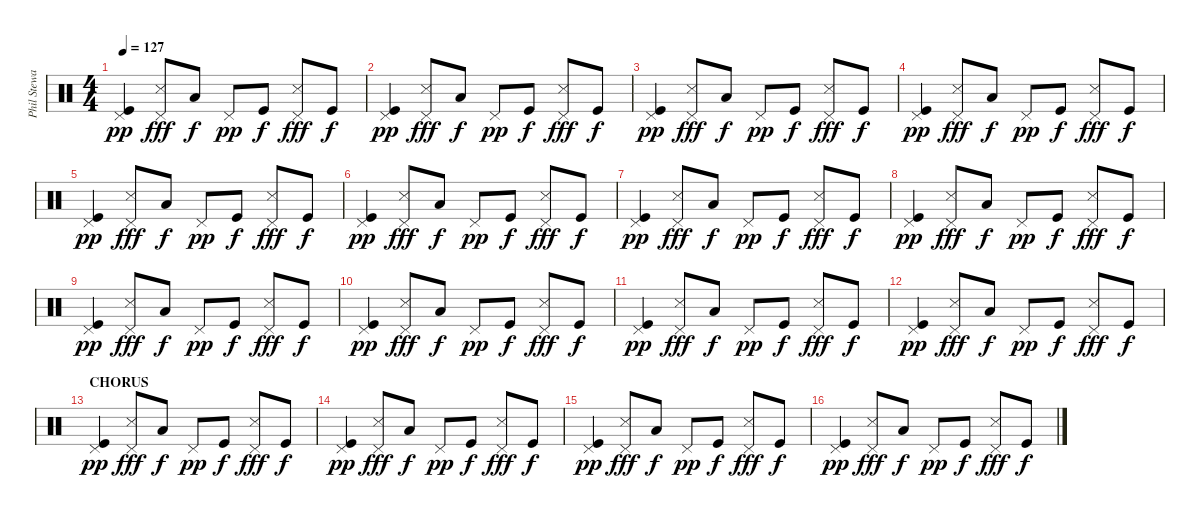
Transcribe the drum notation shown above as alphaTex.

\track ("Phil Steway" "Phil Stewa") {instrument percussion}
\staff {score}
\articulation defaults
\ts (4 4)
\tempo 127
\clef neutral
\ks c
("Pedal Hi-Hat (hit)" "Kick (hit)").4{dy pp} ("Pedal Hi-Hat (hit)" "Snare (side stick) 3").8{dy fff} "Low Tom (hit)".8{dy f} "Pedal Hi-Hat (hit)".8{dy pp} "Kick (hit)".8{dy f} ("Pedal Hi-Hat (hit)" "Snare (side stick) 3").8{dy fff} "Kick (hit)".8{dy f} |
("Pedal Hi-Hat (hit)" "Kick (hit)").4{dy pp} ("Pedal Hi-Hat (hit)" "Snare (side stick) 3").8{dy fff} "Low Tom (hit)".8{dy f} "Pedal Hi-Hat (hit)".8{dy pp} "Kick (hit)".8{dy f} ("Pedal Hi-Hat (hit)" "Snare (side stick) 3").8{dy fff} "Kick (hit)".8{dy f} |
("Pedal Hi-Hat (hit)" "Kick (hit)").4{dy pp} ("Pedal Hi-Hat (hit)" "Snare (side stick) 3").8{dy fff} "Low Tom (hit)".8{dy f} "Pedal Hi-Hat (hit)".8{dy pp} "Kick (hit)".8{dy f} ("Pedal Hi-Hat (hit)" "Snare (side stick) 3").8{dy fff} "Kick (hit)".8{dy f} |
("Pedal Hi-Hat (hit)" "Kick (hit)").4{dy pp} ("Pedal Hi-Hat (hit)" "Snare (side stick) 3").8{dy fff} "Low Tom (hit)".8{dy f} "Pedal Hi-Hat (hit)".8{dy pp} "Kick (hit)".8{dy f} ("Pedal Hi-Hat (hit)" "Snare (side stick) 3").8{dy fff} "Kick (hit)".8{dy f} |
("Pedal Hi-Hat (hit)" "Kick (hit)").4{dy pp} ("Pedal Hi-Hat (hit)" "Snare (side stick) 3").8{dy fff} "Low Tom (hit)".8{dy f} "Pedal Hi-Hat (hit)".8{dy pp} "Kick (hit)".8{dy f} ("Pedal Hi-Hat (hit)" "Snare (side stick) 3").8{dy fff} "Kick (hit)".8{dy f} |
("Pedal Hi-Hat (hit)" "Kick (hit)").4{dy pp} ("Pedal Hi-Hat (hit)" "Snare (side stick) 3").8{dy fff} "Low Tom (hit)".8{dy f} "Pedal Hi-Hat (hit)".8{dy pp} "Kick (hit)".8{dy f} ("Pedal Hi-Hat (hit)" "Snare (side stick) 3").8{dy fff} "Kick (hit)".8{dy f} |
("Pedal Hi-Hat (hit)" "Kick (hit)").4{dy pp} ("Pedal Hi-Hat (hit)" "Snare (side stick) 3").8{dy fff} "Low Tom (hit)".8{dy f} "Pedal Hi-Hat (hit)".8{dy pp} "Kick (hit)".8{dy f} ("Pedal Hi-Hat (hit)" "Snare (side stick) 3").8{dy fff} "Kick (hit)".8{dy f} |
("Pedal Hi-Hat (hit)" "Kick (hit)").4{dy pp} ("Pedal Hi-Hat (hit)" "Snare (side stick) 3").8{dy fff} "Low Tom (hit)".8{dy f} "Pedal Hi-Hat (hit)".8{dy pp} "Kick (hit)".8{dy f} ("Pedal Hi-Hat (hit)" "Snare (side stick) 3").8{dy fff} "Kick (hit)".8{dy f} |
("Pedal Hi-Hat (hit)" "Kick (hit)").4{dy pp} ("Pedal Hi-Hat (hit)" "Snare (side stick) 3").8{dy fff} "Low Tom (hit)".8{dy f} "Pedal Hi-Hat (hit)".8{dy pp} "Kick (hit)".8{dy f} ("Pedal Hi-Hat (hit)" "Snare (side stick) 3").8{dy fff} "Kick (hit)".8{dy f} |
("Pedal Hi-Hat (hit)" "Kick (hit)").4{dy pp} ("Pedal Hi-Hat (hit)" "Snare (side stick) 3").8{dy fff} "Low Tom (hit)".8{dy f} "Pedal Hi-Hat (hit)".8{dy pp} "Kick (hit)".8{dy f} ("Pedal Hi-Hat (hit)" "Snare (side stick) 3").8{dy fff} "Kick (hit)".8{dy f} |
("Pedal Hi-Hat (hit)" "Kick (hit)").4{dy pp} ("Pedal Hi-Hat (hit)" "Snare (side stick) 3").8{dy fff} "Low Tom (hit)".8{dy f} "Pedal Hi-Hat (hit)".8{dy pp} "Kick (hit)".8{dy f} ("Pedal Hi-Hat (hit)" "Snare (side stick) 3").8{dy fff} "Kick (hit)".8{dy f} |
("Pedal Hi-Hat (hit)" "Kick (hit)").4{dy pp} ("Pedal Hi-Hat (hit)" "Snare (side stick) 3").8{dy fff} "Low Tom (hit)".8{dy f} "Pedal Hi-Hat (hit)".8{dy pp} "Kick (hit)".8{dy f} ("Pedal Hi-Hat (hit)" "Snare (side stick) 3").8{dy fff} "Kick (hit)".8{dy f} |
\section ("" "CHORUS")
("Pedal Hi-Hat (hit)" "Kick (hit)").4{dy pp} ("Pedal Hi-Hat (hit)" "Snare (side stick) 3").8{dy fff} "Low Tom (hit)".8{dy f} "Pedal Hi-Hat (hit)".8{dy pp} "Kick (hit)".8{dy f} ("Pedal Hi-Hat (hit)" "Snare (side stick) 3").8{dy fff} "Kick (hit)".8{dy f} |
("Pedal Hi-Hat (hit)" "Kick (hit)").4{dy pp} ("Pedal Hi-Hat (hit)" "Snare (side stick) 3").8{dy fff} "Low Tom (hit)".8{dy f} "Pedal Hi-Hat (hit)".8{dy pp} "Kick (hit)".8{dy f} ("Pedal Hi-Hat (hit)" "Snare (side stick) 3").8{dy fff} "Kick (hit)".8{dy f} |
("Pedal Hi-Hat (hit)" "Kick (hit)").4{dy pp} ("Pedal Hi-Hat (hit)" "Snare (side stick) 3").8{dy fff} "Low Tom (hit)".8{dy f} "Pedal Hi-Hat (hit)".8{dy pp} "Kick (hit)".8{dy f} ("Pedal Hi-Hat (hit)" "Snare (side stick) 3").8{dy fff} "Kick (hit)".8{dy f} |
("Pedal Hi-Hat (hit)" "Kick (hit)").4{dy pp} ("Pedal Hi-Hat (hit)" "Snare (side stick) 3").8{dy fff} "Low Tom (hit)".8{dy f} "Pedal Hi-Hat (hit)".8{dy pp} "Kick (hit)".8{dy f} ("Pedal Hi-Hat (hit)" "Snare (side stick) 3").8{dy fff} "Kick (hit)".8{dy f}
